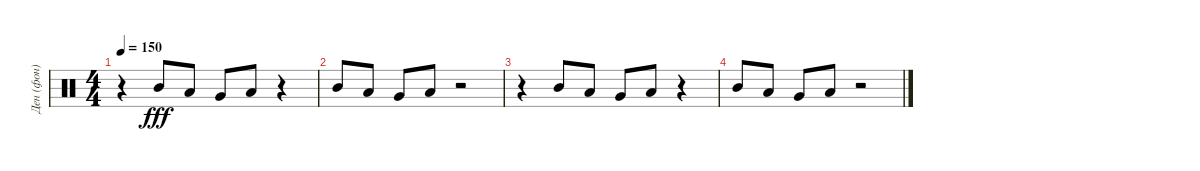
\track ("Ден (фон)" "Ден (фон)") {instrument percussion}
\staff {score}
\articulation defaults
\ts (4 4)
\tempo 150
\clef neutral
\ks c
r.4{dy fff} "Mid Tom (hit)".8 "Low Tom (hit)".8 "Very Low Tom (hit)".8 "Low Floor Tom (hit)".8 r.4 |
"Mid Tom (hit)".8 "Low Tom (hit)".8 "Very Low Tom (hit)".8 "Low Floor Tom (hit)".8 r.2 |
r.4 "Mid Tom (hit)".8 "Low Tom (hit)".8 "Very Low Tom (hit)".8 "Low Floor Tom (hit)".8 r.4 |
"Mid Tom (hit)".8 "Low Tom (hit)".8 "Very Low Tom (hit)".8 "Low Floor Tom (hit)".8 r.2
